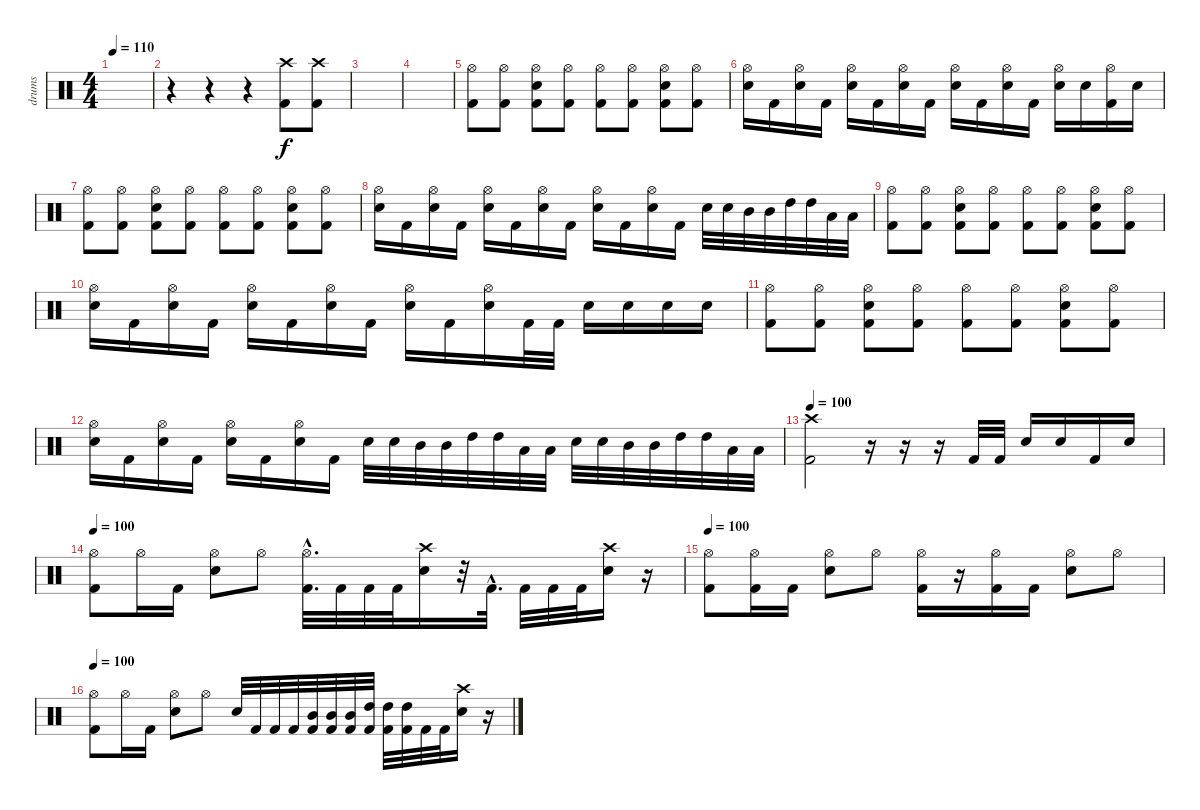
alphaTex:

\track ("drums" "drums") {instrument percussion}
\staff {score}
\articulation defaults
\ts (4 4)
\tempo 110
\clef neutral
\ks c
|
r.4 r.4 r.4 ("Kick (hit) 2" "Crash high (hit)").8 ("Kick (hit) 2" "Crash high (hit)").8 |
|
|
("Kick (hit) 2" "Hi-Hat (open)").8 ("Kick (hit) 2" "Hi-Hat (open)").8 ("Kick (hit) 2" "Electric Snare (hit)" "Hi-Hat (open)").8 ("Kick (hit) 2" "Hi-Hat (open)").8 ("Kick (hit) 2" "Hi-Hat (open)").8 ("Kick (hit) 2" "Hi-Hat (open)").8 ("Kick (hit) 2" "Electric Snare (hit)" "Hi-Hat (open)").8 ("Kick (hit) 2" "Hi-Hat (open)").8 |
("Electric Snare (hit)" "Hi-Hat (open)").16 "Kick (hit) 2".16 ("Electric Snare (hit)" "Hi-Hat (open)").16 "Kick (hit) 2".16 ("Electric Snare (hit)" "Hi-Hat (open)").16 "Kick (hit) 2".16 ("Electric Snare (hit)" "Hi-Hat (open)").16 "Kick (hit) 2".16 ("Electric Snare (hit)" "Hi-Hat (open)").16 "Kick (hit) 2".16 ("Electric Snare (hit)" "Hi-Hat (open)").16 "Kick (hit) 2".16 ("Electric Snare (hit)" "Hi-Hat (open)").16 "Electric Snare (hit)".16 ("Kick (hit) 2" "Hi-Hat (open)").16 "Electric Snare (hit)".16 |
("Kick (hit) 2" "Hi-Hat (open)").8 ("Kick (hit) 2" "Hi-Hat (open)").8 ("Kick (hit) 2" "Electric Snare (hit)" "Hi-Hat (open)").8 ("Kick (hit) 2" "Hi-Hat (open)").8 ("Kick (hit) 2" "Hi-Hat (open)").8 ("Kick (hit) 2" "Hi-Hat (open)").8 ("Kick (hit) 2" "Electric Snare (hit)" "Hi-Hat (open)").8 ("Kick (hit) 2" "Hi-Hat (open)").8 |
("Electric Snare (hit)" "Hi-Hat (open)").16 "Kick (hit) 2".16 ("Electric Snare (hit)" "Hi-Hat (open)").16 "Kick (hit) 2".16 ("Electric Snare (hit)" "Hi-Hat (open)").16 "Kick (hit) 2".16 ("Electric Snare (hit)" "Hi-Hat (open)").16 "Kick (hit) 2".16 ("Electric Snare (hit)" "Hi-Hat (open)").16 "Kick (hit) 2".16 ("Electric Snare (hit)" "Hi-Hat (open)").16 "Kick (hit) 2".16 "Electric Snare (hit)".32 "Electric Snare (hit)".32 "Mid Tom (hit)".32 "Mid Tom (hit)".32 "High Tom (hit)".32 "High Tom (hit)".32 "Low Floor Tom (hit)".32 "Low Floor Tom (hit)".32 |
("Kick (hit) 2" "Hi-Hat (open)").8 ("Kick (hit) 2" "Hi-Hat (open)").8 ("Kick (hit) 2" "Electric Snare (hit)" "Hi-Hat (open)").8 ("Kick (hit) 2" "Hi-Hat (open)").8 ("Kick (hit) 2" "Hi-Hat (open)").8 ("Kick (hit) 2" "Hi-Hat (open)").8 ("Kick (hit) 2" "Electric Snare (hit)" "Hi-Hat (open)").8 ("Kick (hit) 2" "Hi-Hat (open)").8 |
("Electric Snare (hit)" "Hi-Hat (open)").16 "Kick (hit) 2".16 ("Electric Snare (hit)" "Hi-Hat (open)").16 "Kick (hit) 2".16 ("Electric Snare (hit)" "Hi-Hat (open)").16 "Kick (hit) 2".16 ("Electric Snare (hit)" "Hi-Hat (open)").16 "Kick (hit) 2".16 ("Electric Snare (hit)" "Hi-Hat (open)").16 "Kick (hit) 2".16 ("Electric Snare (hit)" "Hi-Hat (open)").16 "Kick (hit) 2".32 "Kick (hit) 2".32 "Electric Snare (hit)".16 "Electric Snare (hit)".16 "Electric Snare (hit)".16 "Electric Snare (hit)".16 |
("Kick (hit) 2" "Hi-Hat (open)").8 ("Kick (hit) 2" "Hi-Hat (open)").8 ("Kick (hit) 2" "Electric Snare (hit)" "Hi-Hat (open)").8 ("Kick (hit) 2" "Hi-Hat (open)").8 ("Kick (hit) 2" "Hi-Hat (open)").8 ("Kick (hit) 2" "Hi-Hat (open)").8 ("Kick (hit) 2" "Electric Snare (hit)" "Hi-Hat (open)").8 ("Kick (hit) 2" "Hi-Hat (open)").8 |
("Electric Snare (hit)" "Hi-Hat (open)").16 "Kick (hit) 2".16 ("Electric Snare (hit)" "Hi-Hat (open)").16 "Kick (hit) 2".16 ("Electric Snare (hit)" "Hi-Hat (open)").16 "Kick (hit) 2".16 ("Electric Snare (hit)" "Hi-Hat (open)").16 "Kick (hit) 2".16 "Electric Snare (hit)".32 "Electric Snare (hit)".32 "Mid Tom (hit)".32 "Mid Tom (hit)".32 "High Tom (hit)".32 "High Tom (hit)".32 "Low Floor Tom (hit)".32 "Low Floor Tom (hit)".32 "Electric Snare (hit)".32 "Electric Snare (hit)".32 "Mid Tom (hit)".32 "Mid Tom (hit)".32 "High Tom (hit)".32 "High Tom (hit)".32 "Low Floor Tom (hit)".32 "Low Floor Tom (hit)".32 |
\tempo 100
("Kick (hit) 2" "Crash high (hit)").2 r.16 r.16 r.16 "Kick (hit) 2".32 "Kick (hit) 2".32 "Electric Snare (hit)".16 "Electric Snare (hit)".16 "Kick (hit) 2".16 "Electric Snare (hit)".16 |
\tempo 100
("Kick (hit) 2" "Hi-Hat (open)").8 "Hi-Hat (open)".16 "Kick (hit) 2".16 ("Electric Snare (hit)" "Hi-Hat (open)").8 "Hi-Hat (open)".8 ("Kick (hit) 2"{hac} "Hi-Hat (open)"{hac}).32{d} "Kick (hit) 2".32 "Kick (hit) 2".32 "Kick (hit) 2".32 ("Electric Snare (hit)" "Crash high (hit)").16 r.32 "Kick (hit) 2"{hac}.32{d} "Kick (hit) 2".32 "Kick (hit) 2".32 "Kick (hit) 2".32 ("Electric Snare (hit)" "Crash high (hit)").16 r.16 |
\tempo 100
("Kick (hit) 2" "Hi-Hat (open)").8 ("Kick (hit) 2" "Hi-Hat (open)").16 "Kick (hit) 2".16 ("Electric Snare (hit)" "Hi-Hat (open)").8 "Hi-Hat (open)".8 ("Kick (hit) 2" "Hi-Hat (open)").16 r.16 ("Kick (hit) 2" "Hi-Hat (open)").16 "Kick (hit) 2".16 ("Electric Snare (hit)" "Hi-Hat (open)").8 "Hi-Hat (open)".8 |
\tempo 100
("Kick (hit) 2" "Hi-Hat (open)").8 "Hi-Hat (open)".16 "Kick (hit) 2".16 ("Electric Snare (hit)" "Hi-Hat (open)").8 "Hi-Hat (open)".8 "Electric Snare (hit)".32 "Kick (hit) 2".32 "Kick (hit) 2".32 "Kick (hit) 2".32 ("Kick (hit) 2" "Mid Tom (hit)").32 ("Kick (hit) 2" "Mid Tom (hit)").32 ("Kick (hit) 2" "Mid Tom (hit)").32 ("Kick (hit) 2" "High Tom (hit)").32 ("Kick (hit) 2" "High Tom (hit)").32 ("Kick (hit) 2" "High Tom (hit)").32 "Kick (hit) 2".32 "Kick (hit) 2".32 ("Electric Snare (hit)" "Crash high (hit)").16 r.16
